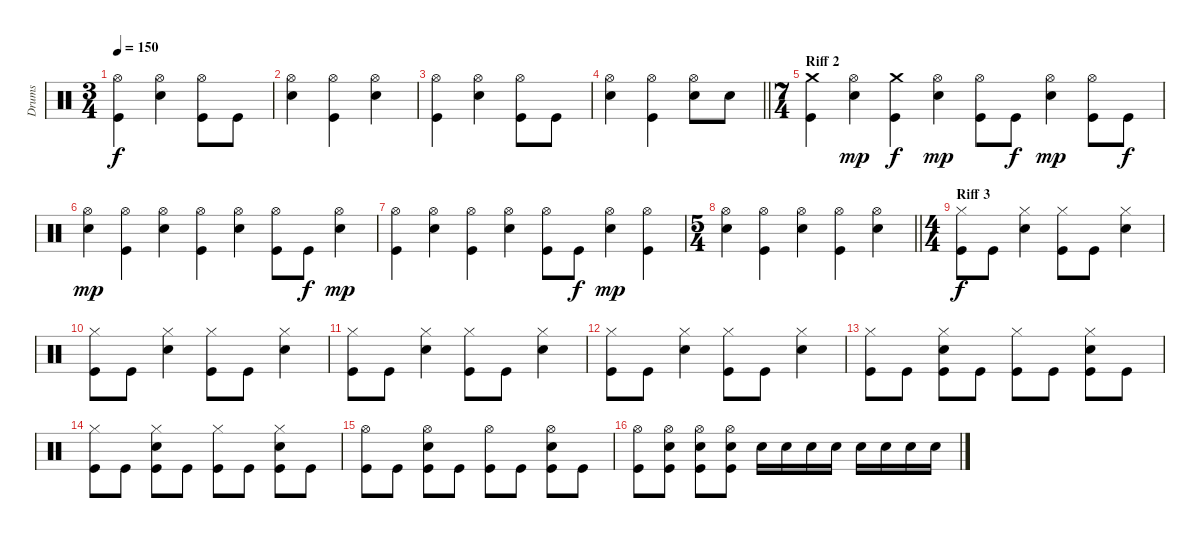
\track ("Drums" "Drums") {instrument percussion}
\staff {score}
\articulation defaults
\ts (3 4)
\tempo 150
\clef neutral
\ks c
("Hi-Hat (open)" "Kick (hit)").4{dy f} ("Hi-Hat (open)" "Electric Snare (hit)").4 ("Hi-Hat (open)" "Kick (hit)").8 "Kick (hit)".8 |
("Hi-Hat (open)" "Electric Snare (hit)").4 ("Hi-Hat (open)" "Kick (hit)").4 ("Hi-Hat (open)" "Electric Snare (hit)").4 |
("Hi-Hat (open)" "Kick (hit)").4 ("Hi-Hat (open)" "Electric Snare (hit)").4 ("Hi-Hat (open)" "Kick (hit)").8 "Kick (hit)".8 |
\barLineRight lightlight
("Hi-Hat (open)" "Electric Snare (hit)").4 ("Hi-Hat (open)" "Kick (hit)").4 ("Hi-Hat (open)" "Electric Snare (hit)").8 "Electric Snare (hit)".8 |
\ts (7 4)
\section ("" "Riff 2")
("Crash medium (hit)" "Kick (hit)").4 ("Hi-Hat (open)" "Electric Snare (hit)").4{dy mp} ("Crash medium (hit)" "Kick (hit)").4{dy f} ("Hi-Hat (open)" "Electric Snare (hit)").4{dy mp} ("Hi-Hat (open)" "Kick (hit)").8 "Kick (hit)".8{dy f} ("Hi-Hat (open)" "Electric Snare (hit)").4{dy mp} ("Hi-Hat (open)" "Kick (hit)").8 "Kick (hit)".8{dy f} |
("Hi-Hat (open)" "Electric Snare (hit)").4{dy mp} ("Hi-Hat (open)" "Kick (hit)").4 ("Hi-Hat (open)" "Electric Snare (hit)").4 ("Hi-Hat (open)" "Kick (hit)").4 ("Hi-Hat (open)" "Electric Snare (hit)").4 ("Hi-Hat (open)" "Kick (hit)").8 "Kick (hit)".8{dy f} ("Hi-Hat (open)" "Electric Snare (hit)").4{dy mp} |
("Hi-Hat (open)" "Kick (hit)").4 ("Hi-Hat (open)" "Electric Snare (hit)").4 ("Hi-Hat (open)" "Kick (hit)").4 ("Hi-Hat (open)" "Electric Snare (hit)").4 ("Hi-Hat (open)" "Kick (hit)").8 "Kick (hit)".8{dy f} ("Hi-Hat (open)" "Electric Snare (hit)").4{dy mp} ("Hi-Hat (open)" "Kick (hit)").4 |
\ts (5 4)
\barLineRight lightlight
("Hi-Hat (open)" "Electric Snare (hit)").4 ("Hi-Hat (open)" "Kick (hit)").4 ("Hi-Hat (open)" "Electric Snare (hit)").4 ("Hi-Hat (open)" "Kick (hit)").4 ("Hi-Hat (open)" "Electric Snare (hit)").4 |
\ts (4 4)
\section ("" "Riff 3")
("Hi-Hat (closed)" "Kick (hit)").8{dy f} "Kick (hit)".8 ("Hi-Hat (closed)" "Electric Snare (hit)").4 ("Hi-Hat (closed)" "Kick (hit)").8 "Kick (hit)".8 ("Hi-Hat (closed)" "Electric Snare (hit)").4 |
("Hi-Hat (closed)" "Kick (hit)").8 "Kick (hit)".8 ("Hi-Hat (closed)" "Electric Snare (hit)").4 ("Hi-Hat (closed)" "Kick (hit)").8 "Kick (hit)".8 ("Hi-Hat (closed)" "Electric Snare (hit)").4 |
("Hi-Hat (closed)" "Kick (hit)").8 "Kick (hit)".8 ("Hi-Hat (closed)" "Electric Snare (hit)").4 ("Hi-Hat (closed)" "Kick (hit)").8 "Kick (hit)".8 ("Hi-Hat (closed)" "Electric Snare (hit)").4 |
("Hi-Hat (closed)" "Kick (hit)").8 "Kick (hit)".8 ("Hi-Hat (closed)" "Electric Snare (hit)").4 ("Hi-Hat (closed)" "Kick (hit)").8 "Kick (hit)".8 ("Hi-Hat (closed)" "Electric Snare (hit)").4 |
("Hi-Hat (closed)" "Kick (hit)").8 "Kick (hit)".8 ("Hi-Hat (closed)" "Electric Snare (hit)" "Kick (hit)").8 "Kick (hit)".8 ("Hi-Hat (closed)" "Kick (hit)").8 "Kick (hit)".8 ("Hi-Hat (closed)" "Electric Snare (hit)" "Kick (hit)").8 "Kick (hit)".8 |
("Hi-Hat (closed)" "Kick (hit)").8 "Kick (hit)".8 ("Hi-Hat (closed)" "Electric Snare (hit)" "Kick (hit)").8 "Kick (hit)".8 ("Hi-Hat (closed)" "Kick (hit)").8 "Kick (hit)".8 ("Hi-Hat (closed)" "Electric Snare (hit)" "Kick (hit)").8 "Kick (hit)".8 |
("Hi-Hat (open)" "Kick (hit)").8 "Kick (hit)".8 ("Hi-Hat (open)" "Electric Snare (hit)" "Kick (hit)").8 "Kick (hit)".8 ("Hi-Hat (open)" "Kick (hit)").8 "Kick (hit)".8 ("Hi-Hat (open)" "Electric Snare (hit)" "Kick (hit)").8 "Kick (hit)".8 |
("Hi-Hat (open)" "Kick (hit)").8 ("Hi-Hat (open)" "Electric Snare (hit)" "Kick (hit)").8 ("Hi-Hat (open)" "Electric Snare (hit)" "Kick (hit)").8 ("Hi-Hat (open)" "Electric Snare (hit)" "Kick (hit)").8 "Electric Snare (hit)".16 "Electric Snare (hit)".16 "Electric Snare (hit)".16 "Electric Snare (hit)".16 "Electric Snare (hit)".16 "Electric Snare (hit)".16 "Electric Snare (hit)".16 "Electric Snare (hit)".16
